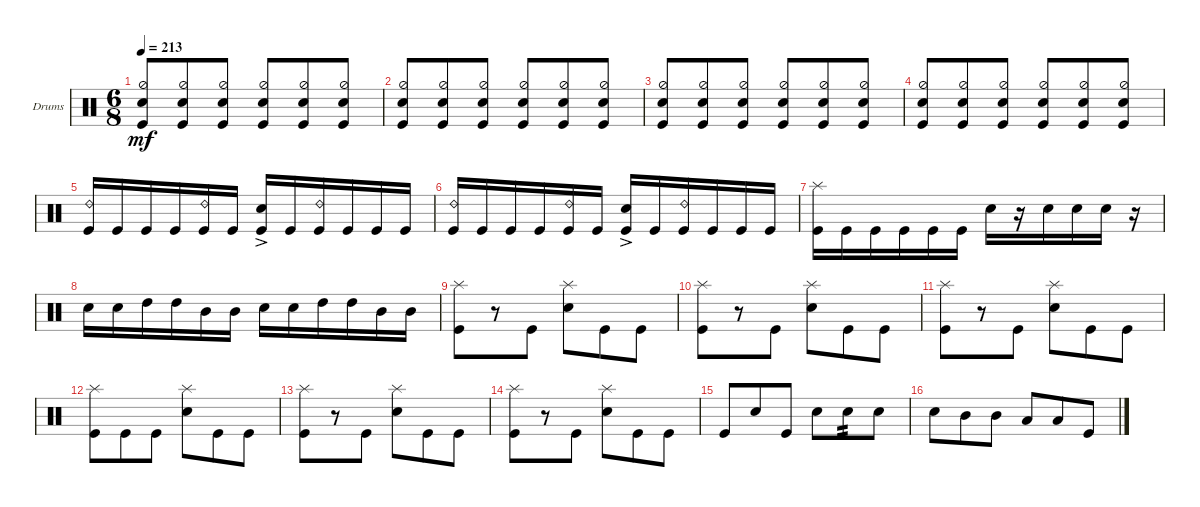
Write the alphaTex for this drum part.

\bracketExtendMode groupsimilarinstruments
\firstSystemTrackNameOrientation horizontal
\otherSystemsTrackNameOrientation horizontal
\track ("Drumkit" "Drums") {instrument percussion}
\staff {score}
\articulation defaults
\ts (6 8)
\tempo 213
\clef neutral
\ks c
("Snare (hit) 2" "Hi-Hat (half)" "Kick (hit)").8{dy mf} ("Snare (hit) 2" "Hi-Hat (half)" "Kick (hit)").8 ("Snare (hit) 2" "Hi-Hat (half)" "Kick (hit)").8 ("Snare (hit) 2" "Hi-Hat (half)" "Kick (hit)").8 ("Snare (hit) 2" "Hi-Hat (half)" "Kick (hit)").8 ("Snare (hit) 2" "Hi-Hat (half)" "Kick (hit)").8 |
("Snare (hit) 2" "Hi-Hat (half)" "Kick (hit)").8 ("Snare (hit) 2" "Hi-Hat (half)" "Kick (hit)").8 ("Snare (hit) 2" "Hi-Hat (half)" "Kick (hit)").8 ("Snare (hit) 2" "Hi-Hat (half)" "Kick (hit)").8 ("Snare (hit) 2" "Hi-Hat (half)" "Kick (hit)").8 ("Snare (hit) 2" "Hi-Hat (half)" "Kick (hit)").8 |
("Snare (hit) 2" "Hi-Hat (half)" "Kick (hit)").8 ("Snare (hit) 2" "Hi-Hat (half)" "Kick (hit)").8 ("Snare (hit) 2" "Hi-Hat (half)" "Kick (hit)").8 ("Snare (hit) 2" "Hi-Hat (half)" "Kick (hit)").8 ("Snare (hit) 2" "Hi-Hat (half)" "Kick (hit)").8 ("Snare (hit) 2" "Hi-Hat (half)" "Kick (hit)").8 |
("Snare (hit) 2" "Hi-Hat (half)" "Kick (hit)").8 ("Snare (hit) 2" "Hi-Hat (half)" "Kick (hit)").8 ("Snare (hit) 2" "Hi-Hat (half)" "Kick (hit)").8 ("Snare (hit) 2" "Hi-Hat (half)" "Kick (hit)").8 ("Snare (hit) 2" "Hi-Hat (half)" "Kick (hit)").8 ("Snare (hit) 2" "Hi-Hat (half)" "Kick (hit)").8 |
("Kick (hit)" "Ride (bell) 2").16 "Kick (hit)".16 "Kick (hit)".16 "Kick (hit)".16 ("Kick (hit)" "Ride (bell) 2").16 "Kick (hit)".16 ("Snare (hit) 2"{ac} "Kick (hit)").16 "Kick (hit)".16 ("Kick (hit)" "Ride (bell) 2").16 "Kick (hit)".16 "Kick (hit)".16 "Kick (hit)".16 |
("Kick (hit)" "Ride (bell) 2").16 "Kick (hit)".16 "Kick (hit)".16 "Kick (hit)".16 ("Kick (hit)" "Ride (bell) 2").16 "Kick (hit)".16 ("Snare (hit) 2"{ac} "Kick (hit)").16 "Kick (hit)".16 ("Kick (hit)" "Ride (bell) 2").16 "Kick (hit)".16 "Kick (hit)".16 "Kick (hit)".16 |
("Kick (hit)" "Splash (hit)").16 "Kick (hit)".16 "Kick (hit)".16 "Kick (hit)".16 "Kick (hit)".16 "Kick (hit)".16 "Snare (hit) 2".16 r.16 "Snare (hit) 2".16 "Snare (hit) 2".16 "Snare (hit) 2".16 r.16 |
"Snare (hit) 2".16 "Snare (hit) 2".16 "High Tom (hit)".16 "High Tom (hit)".16 "Mid Tom (hit)".16 "Mid Tom (hit)".16 "Snare (hit) 2".16 "Snare (hit) 2".16 "High Tom (hit)".16 "High Tom (hit)".16 "Mid Tom (hit)".16 "Mid Tom (hit)".16 |
("Kick (hit)" "Splash (hit)").8 r.8 "Kick (hit)".8 ("Snare (hit) 2" "Splash (hit)").8 "Kick (hit)".8 "Kick (hit)".8 |
("Kick (hit)" "Splash (hit)").8 r.8 "Kick (hit)".8 ("Snare (hit) 2" "Splash (hit)").8 "Kick (hit)".8 "Kick (hit)".8 |
("Kick (hit)" "Splash (hit)").8 r.8 "Kick (hit)".8 ("Snare (hit) 2" "Splash (hit)").8 "Kick (hit)".8 "Kick (hit)".8 |
("Kick (hit)" "Splash (hit)").8 "Kick (hit)".8 "Kick (hit)".8 ("Snare (hit) 2" "Splash (hit)").8 "Kick (hit)".8 "Kick (hit)".8 |
("Kick (hit)" "Splash (hit)").8 r.8 "Kick (hit)".8 ("Snare (hit) 2" "Splash (hit)").8 "Kick (hit)".8 "Kick (hit)".8 |
("Kick (hit)" "Splash (hit)").8 r.8 "Kick (hit)".8 ("Snare (hit) 2" "Splash (hit)").8 "Kick (hit)".8 "Kick (hit)".8 |
"Kick (hit)".8 "Snare (hit) 2".8 "Kick (hit)".8 "Snare (hit) 2".8 "Snare (hit) 2".8{tp 2} "Snare (hit) 2".8 |
"Snare (hit) 2".8 "Mid Tom (hit)".8 "Mid Tom (hit)".8 "Low Tom (hit)".8 "Low Tom (hit)".8 "Kick (hit)".8
